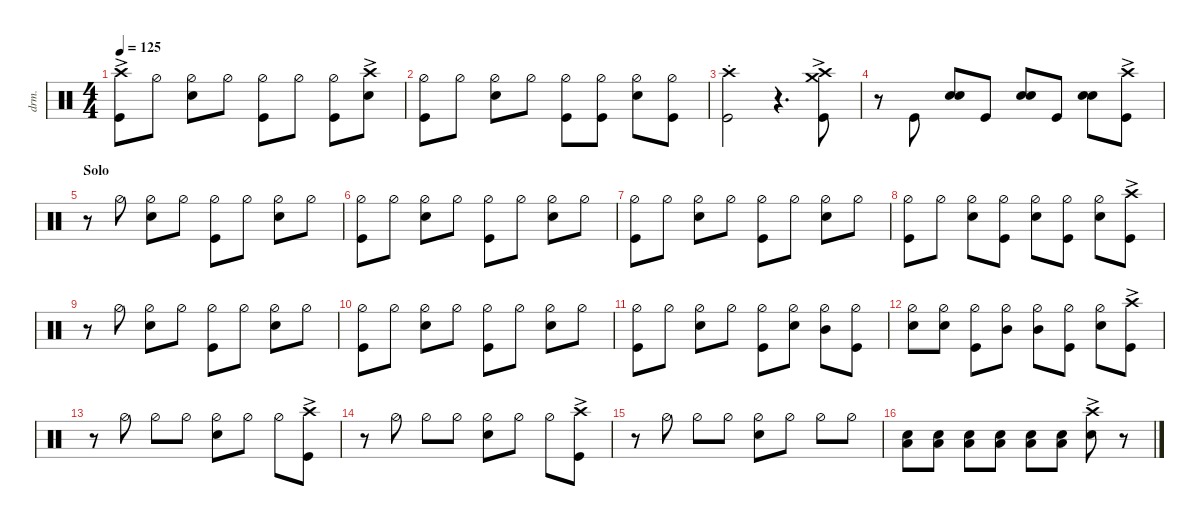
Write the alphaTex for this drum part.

\defaultSystemsLayout 4
\hideDynamics
\bracketExtendMode nobrackets
\track ("Drums" "drm.") {defaultSystemsLayout 4 multiBarRest instrument percussion}
\staff {score}
\articulation defaults
\ts (4 4)
\tempo 125
\clef neutral
\ks c
("Kick (hit)" "Crash high (hit)"{ac}).8{dy f beam Down} "Hi-Hat (half)".8{beam Down} ("Hi-Hat (half)" "Snare (hit) 2").8{beam Down} "Hi-Hat (half)".8{beam Down} ("Hi-Hat (half)" "Kick (hit)").8{beam Down} "Hi-Hat (half)".8{beam Down} ("Hi-Hat (half)" "Kick (hit)").8{beam Down} ("Snare (hit) 2" "Crash high (hit)"{ac}).8{beam Down} |
("Hi-Hat (half)" "Kick (hit)").8{beam Down} "Hi-Hat (half)".8{beam Down} ("Hi-Hat (half)" "Snare (hit) 2").8{beam Down} "Hi-Hat (half)".8{beam Down} ("Hi-Hat (half)" "Kick (hit)").8{beam Down} ("Hi-Hat (half)" "Kick (hit)").8{beam Down} ("Hi-Hat (half)" "Snare (hit) 2").8{beam Down} ("Hi-Hat (half)" "Kick (hit)").8{beam Down} |
("Kick (hit)" "Crash high (hit)"{st}).2{beam Down} r.4{d beam Down} ("Kick (hit)" "Crash high (hit)"{ac} "Crash medium (hit)"{ac}).8{beam Down} |
r.8{beam Down} "Kick (hit)".8{beam Up} ("Snare (hit) 2" "Snare (hit) 2").8{beam Up} "Kick (hit)".8{beam Up} ("Snare (hit) 2" "Snare (hit) 2").8{beam Up} "Kick (hit)".8{beam Up} ("Snare (hit) 2" "Snare (hit) 2").8{beam Down} ("Kick (hit)" "Crash high (hit)"{ac}).8{beam Down} |
\section ("" "Solo")
r.8{beam Down} "Hi-Hat (half)".8{beam Down} ("Hi-Hat (half)" "Snare (hit) 2").8{beam Down} "Hi-Hat (half)".8{beam Down} ("Hi-Hat (half)" "Kick (hit)").8{beam Down} "Hi-Hat (half)".8{beam Down} ("Hi-Hat (half)" "Snare (hit) 2").8{beam Down} "Hi-Hat (half)".8{beam Down} |
("Hi-Hat (half)" "Kick (hit)").8{beam Down} "Hi-Hat (half)".8{beam Down} ("Hi-Hat (half)" "Snare (hit) 2").8{beam Down} "Hi-Hat (half)".8{beam Down} ("Hi-Hat (half)" "Kick (hit)").8{beam Down} "Hi-Hat (half)".8{beam Down} ("Hi-Hat (half)" "Snare (hit) 2").8{beam Down} "Hi-Hat (half)".8{beam Down} |
("Hi-Hat (half)" "Kick (hit)").8{beam Down} "Hi-Hat (half)".8{beam Down} ("Hi-Hat (half)" "Snare (hit) 2").8{beam Down} "Hi-Hat (half)".8{beam Down} ("Hi-Hat (half)" "Kick (hit)").8{beam Down} "Hi-Hat (half)".8{beam Down} ("Hi-Hat (half)" "Snare (hit) 2").8{beam Down} "Hi-Hat (half)".8{beam Down} |
("Hi-Hat (half)" "Kick (hit)").8{beam Down} "Hi-Hat (half)".8{beam Down} ("Snare (hit) 2" "Hi-Hat (half)").8{beam Down} ("Hi-Hat (half)" "Kick (hit)").8{beam Down} ("Snare (hit) 2" "Hi-Hat (half)").8{beam Down} ("Kick (hit)" "Hi-Hat (half)").8{beam Down} ("Snare (hit) 2" "Hi-Hat (half)").8{beam Down} ("Crash high (hit)"{ac} "Kick (hit)").8{beam Down} |
r.8{beam Down} "Hi-Hat (half)".8{beam Down} ("Hi-Hat (half)" "Snare (hit) 2").8{beam Down} "Hi-Hat (half)".8{beam Down} ("Hi-Hat (half)" "Kick (hit)").8{beam Down} "Hi-Hat (half)".8{beam Down} ("Hi-Hat (half)" "Snare (hit) 2").8{beam Down} "Hi-Hat (half)".8{beam Down} |
("Hi-Hat (half)" "Kick (hit)").8{beam Down} "Hi-Hat (half)".8{beam Down} ("Hi-Hat (half)" "Snare (hit) 2").8{beam Down} "Hi-Hat (half)".8{beam Down} ("Hi-Hat (half)" "Kick (hit)").8{beam Down} "Hi-Hat (half)".8{beam Down} ("Hi-Hat (half)" "Snare (hit) 2").8{beam Down} "Hi-Hat (half)".8{beam Down} |
("Hi-Hat (half)" "Kick (hit)").8{beam Down} "Hi-Hat (half)".8{beam Down} ("Hi-Hat (half)" "Snare (hit) 2").8{beam Down} "Hi-Hat (half)".8{beam Down} ("Hi-Hat (half)" "Kick (hit)").8{beam Down} ("Hi-Hat (half)" "Snare (hit) 2").8{beam Down} ("Hi-Hat (half)" "Mid Tom (hit)").8{beam Down} ("Hi-Hat (half)" "Kick (hit)").8{beam Down} |
("Hi-Hat (half)" "Snare (hit) 2").8{beam Down} ("Hi-Hat (half)" "Snare (hit) 2").8{beam Down} ("Hi-Hat (half)" "Kick (hit)").8{beam Down} ("Hi-Hat (half)" "Mid Tom (hit)").8{beam Down} ("Hi-Hat (half)" "Mid Tom (hit)").8{beam Down} ("Hi-Hat (half)" "Kick (hit)").8{beam Down} ("Hi-Hat (half)" "Snare (hit) 2").8{beam Down} ("Kick (hit)" "Crash high (hit)"{ac}).8{beam Down} |
r.8{beam Down} "Hi-Hat (half)".8{beam Down} "Hi-Hat (half)".8{beam Down} "Hi-Hat (half)".8{beam Down} ("Hi-Hat (half)" "Snare (hit) 2").8{beam Down} "Hi-Hat (half)".8{beam Down} "Hi-Hat (half)".8{beam Down} ("Crash high (hit)"{ac} "Kick (hit)").8{beam Down} |
r.8{beam Down} "Hi-Hat (half)".8{beam Down} "Hi-Hat (half)".8{beam Down} "Hi-Hat (half)".8{beam Down} ("Hi-Hat (half)" "Snare (hit) 2").8{beam Down} "Hi-Hat (half)".8{beam Down} "Hi-Hat (half)".8{beam Down} ("Crash high (hit)"{ac} "Kick (hit)").8{beam Down} |
r.8{beam Down} "Hi-Hat (half)".8{beam Down} "Hi-Hat (half)".8{beam Down} "Hi-Hat (half)".8{beam Down} ("Hi-Hat (half)" "Snare (hit) 2").8{beam Down} "Hi-Hat (half)".8{beam Down} "Hi-Hat (half)".8{beam Down} "Hi-Hat (half)".8{beam Down} |
("Low Tom (hit)" "Snare (hit) 2").8{beam Down} ("Low Tom (hit)" "Snare (hit) 2").8{beam Down} ("Low Tom (hit)" "Snare (hit) 2").8{beam Down} ("Low Tom (hit)" "Snare (hit) 2").8{beam Down} ("Low Tom (hit)" "Snare (hit) 2").8{beam Down} ("Low Tom (hit)" "Snare (hit) 2").8{beam Down} ("Snare (hit) 2" "Crash high (hit)"{ac}).8{beam Down} r.8{beam Down}
